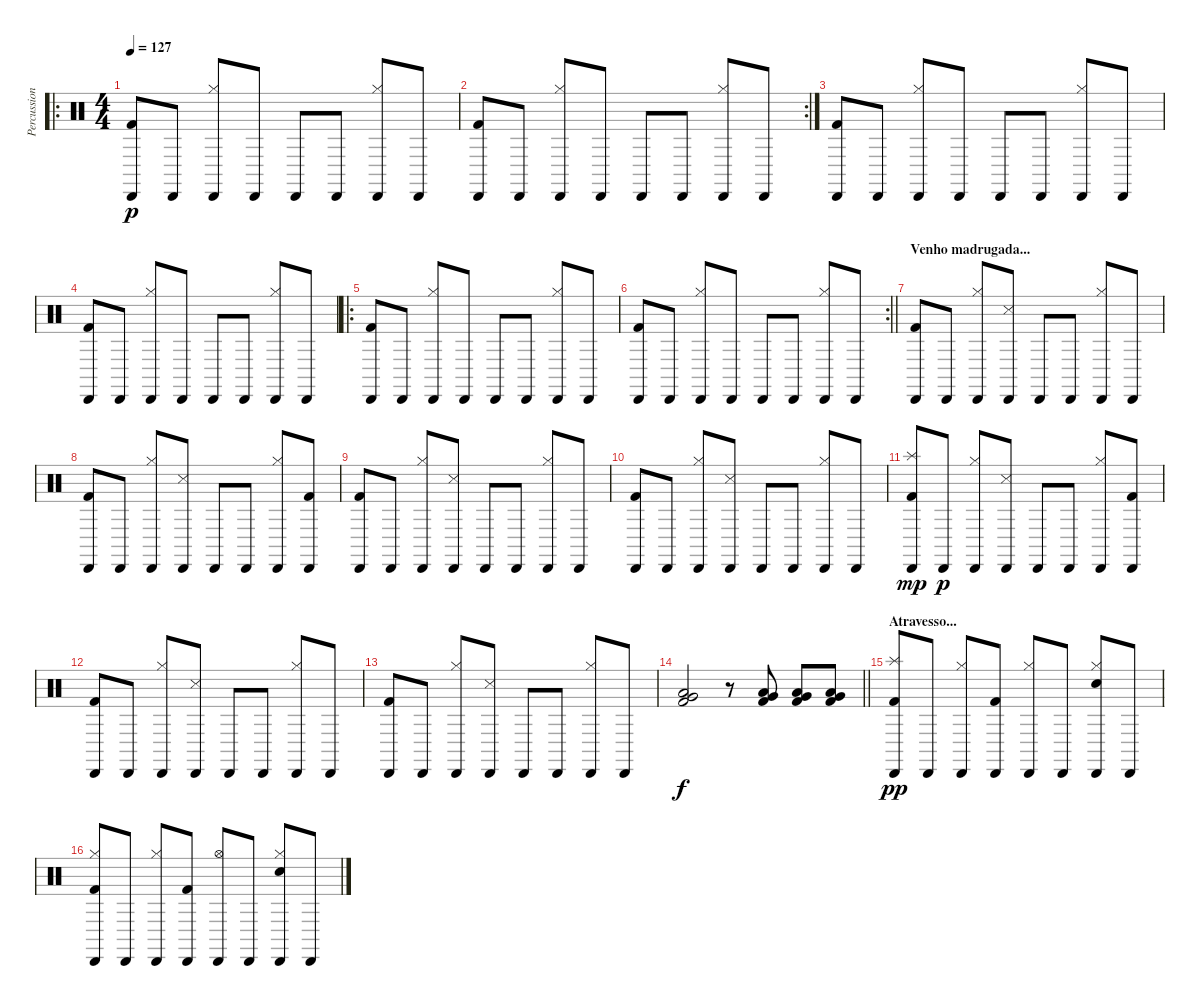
\track ("Percussion" "Percussion") {instrument percussion}
\staff {score}
\articulation defaults
\ro
\ts (4 4)
\tempo 127
\clef neutral
\ks c
("Cabasa (hit)" "Kick (hit) 2").8{dy p} "Cabasa (hit)".8 ("Cabasa (hit)" "Hi-Hat (closed)").8 "Cabasa (hit)".8 "Cabasa (hit)".8 "Cabasa (hit)".8 ("Cabasa (hit)" "Hi-Hat (closed)").8 "Cabasa (hit)".8 |
\rc 2
("Cabasa (hit)" "Kick (hit) 2").8 "Cabasa (hit)".8 ("Cabasa (hit)" "Hi-Hat (closed)").8 "Cabasa (hit)".8 "Cabasa (hit)".8 "Cabasa (hit)".8 ("Cabasa (hit)" "Hi-Hat (closed)").8 "Cabasa (hit)".8 |
("Cabasa (hit)" "Kick (hit) 2").8 "Cabasa (hit)".8 ("Cabasa (hit)" "Hi-Hat (closed)").8 "Cabasa (hit)".8 "Cabasa (hit)".8 "Cabasa (hit)".8 ("Cabasa (hit)" "Hi-Hat (closed)").8 "Cabasa (hit)".8 |
("Cabasa (hit)" "Kick (hit) 2").8 "Cabasa (hit)".8 ("Cabasa (hit)" "Hi-Hat (closed)").8 "Cabasa (hit)".8 "Cabasa (hit)".8 "Cabasa (hit)".8 ("Cabasa (hit)" "Hi-Hat (closed)").8 "Cabasa (hit)".8 |
\ro
("Cabasa (hit)" "Kick (hit) 2").8 "Cabasa (hit)".8 ("Cabasa (hit)" "Hi-Hat (closed)").8 "Cabasa (hit)".8 "Cabasa (hit)".8 "Cabasa (hit)".8 ("Cabasa (hit)" "Hi-Hat (closed)").8 "Cabasa (hit)".8 |
\rc 2
\barLineRight lightlight
("Cabasa (hit)" "Kick (hit) 2").8 "Cabasa (hit)".8 ("Cabasa (hit)" "Hi-Hat (closed)").8 "Cabasa (hit)".8 "Cabasa (hit)".8 "Cabasa (hit)".8 ("Cabasa (hit)" "Hi-Hat (closed)").8 "Cabasa (hit)".8 |
\section ("" "Venho madrugada...")
("Cabasa (hit)" "Kick (hit) 2").8 "Cabasa (hit)".8 ("Cabasa (hit)" "Hi-Hat (closed)").8 ("Cabasa (hit)" "Snare (side stick) 3").8 "Cabasa (hit)".8 "Cabasa (hit)".8 ("Cabasa (hit)" "Hi-Hat (closed)").8 "Cabasa (hit)".8 |
("Cabasa (hit)" "Kick (hit) 2").8 "Cabasa (hit)".8 ("Cabasa (hit)" "Hi-Hat (closed)").8 ("Cabasa (hit)" "Snare (side stick) 3").8 "Cabasa (hit)".8 "Cabasa (hit)".8 ("Cabasa (hit)" "Hi-Hat (closed)").8 ("Cabasa (hit)" "Kick (hit) 2").8 |
("Cabasa (hit)" "Kick (hit) 2").8 "Cabasa (hit)".8 ("Cabasa (hit)" "Hi-Hat (closed)").8 ("Cabasa (hit)" "Snare (side stick) 3").8 "Cabasa (hit)".8 "Cabasa (hit)".8 ("Cabasa (hit)" "Hi-Hat (closed)").8 "Cabasa (hit)".8 |
("Cabasa (hit)" "Kick (hit) 2").8 "Cabasa (hit)".8 ("Cabasa (hit)" "Hi-Hat (closed)").8 ("Cabasa (hit)" "Snare (side stick) 3").8 "Cabasa (hit)".8 "Cabasa (hit)".8 ("Cabasa (hit)" "Hi-Hat (closed)").8 "Cabasa (hit)".8 |
("Cabasa (hit)" "Splash (hit)" "Kick (hit) 2").8{dy mp} "Cabasa (hit)".8{dy p} ("Cabasa (hit)" "Hi-Hat (closed)").8 ("Cabasa (hit)" "Snare (side stick) 3").8 "Cabasa (hit)".8 "Cabasa (hit)".8 ("Cabasa (hit)" "Hi-Hat (closed)").8 ("Cabasa (hit)" "Kick (hit) 2").8 |
("Cabasa (hit)" "Kick (hit) 2").8 "Cabasa (hit)".8 ("Cabasa (hit)" "Hi-Hat (closed)").8 ("Cabasa (hit)" "Snare (side stick) 3").8 "Cabasa (hit)".8 "Cabasa (hit)".8 ("Cabasa (hit)" "Hi-Hat (closed)").8 "Cabasa (hit)".8 |
("Cabasa (hit)" "Kick (hit) 2").8 "Cabasa (hit)".8 ("Cabasa (hit)" "Hi-Hat (closed)").8 ("Cabasa (hit)" "Snare (side stick) 3").8 "Cabasa (hit)".8 "Cabasa (hit)".8 ("Cabasa (hit)" "Hi-Hat (closed)").8 "Cabasa (hit)".8 |
\barLineRight lightlight
("Very Low Tom (hit)" "Low Tom (hit)" "Kick (hit) 2").2{dy f} r.8 ("Very Low Tom (hit)" "Low Tom (hit)" "Kick (hit) 2").8 ("Very Low Tom (hit)" "Low Tom (hit)" "Kick (hit) 2").8 ("Very Low Tom (hit)" "Low Tom (hit)" "Kick (hit) 2").8 |
\section ("" "Atravesso...")
("Cabasa (hit)" "Splash (hit)" "Kick (hit) 2").8{dy pp} "Cabasa (hit)".8 ("Cabasa (hit)" "Hi-Hat (closed)").8 ("Cabasa (hit)" "Kick (hit) 2").8 ("Cabasa (hit)" "Hi-Hat (closed)").8 "Cabasa (hit)".8 ("Cabasa (hit)" "Hi-Hat (closed)" "Electric Snare (hit)").8 "Cabasa (hit)".8 |
("Cabasa (hit)" "Hi-Hat (closed)" "Kick (hit) 2").8 "Cabasa (hit)".8 ("Cabasa (hit)" "Hi-Hat (closed)").8 ("Cabasa (hit)" "Kick (hit) 2").8 ("Cabasa (hit)" "Hi-Hat (open)").8 "Cabasa (hit)".8 ("Cabasa (hit)" "Hi-Hat (closed)" "Electric Snare (hit)").8 "Cabasa (hit)".8
